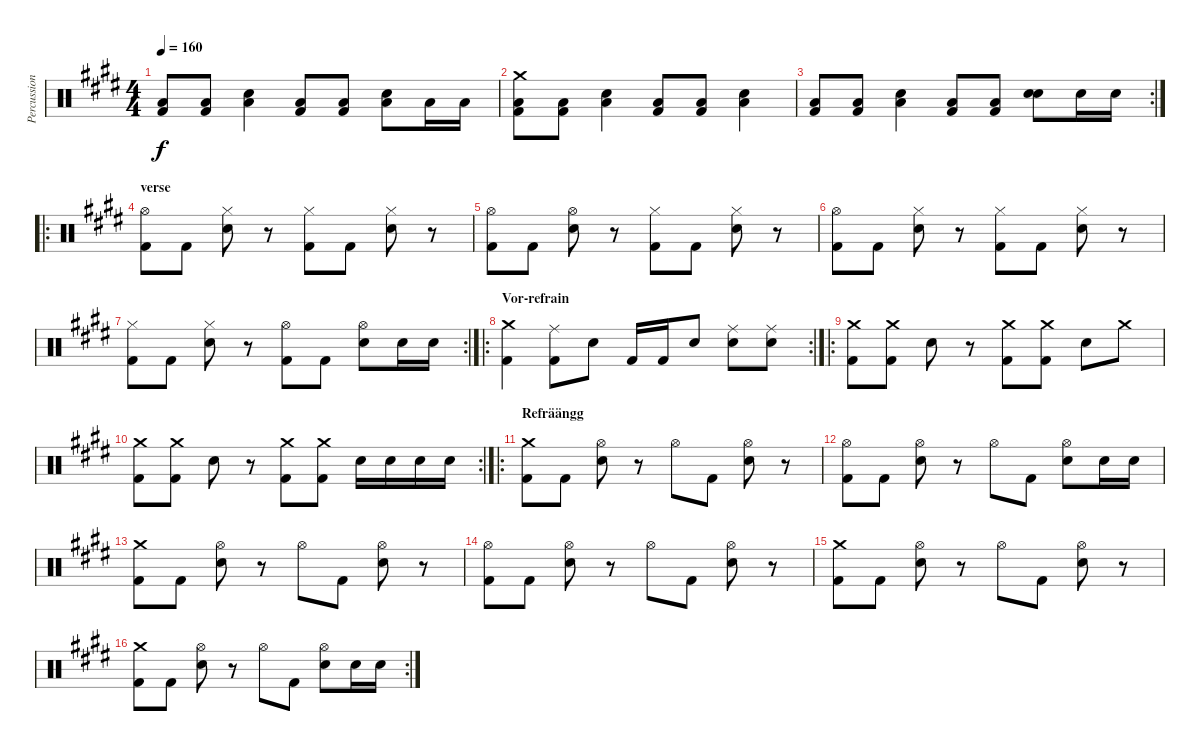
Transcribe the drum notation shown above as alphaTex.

\track ("Percussion" "Percussion") {instrument percussion}
\staff {score}
\articulation defaults
\ts (4 4)
\tempo 160
\clef neutral
\ks e
("Low Floor Tom (hit)" "Kick (hit) 2").8{dy f} ("Low Floor Tom (hit)" "Kick (hit) 2").8 ("Low Floor Tom (hit)" "Electric Snare (hit)").4 ("Low Floor Tom (hit)" "Kick (hit) 2").8 ("Low Floor Tom (hit)" "Kick (hit) 2").8 ("Low Floor Tom (hit)" "Electric Snare (hit)").8 "Low Floor Tom (hit)".16 "Low Floor Tom (hit)".16 |
("Crash medium (hit)" "Low Floor Tom (hit)" "Kick (hit) 2").8 ("Low Floor Tom (hit)" "Kick (hit) 2").8 ("Low Floor Tom (hit)" "Electric Snare (hit)").4 ("Low Floor Tom (hit)" "Kick (hit) 2").8 ("Low Floor Tom (hit)" "Kick (hit) 2").8 ("Low Floor Tom (hit)" "Electric Snare (hit)").4 |
\rc 2
("Low Floor Tom (hit)" "Kick (hit) 2").8 ("Low Floor Tom (hit)" "Kick (hit) 2").8 ("Low Floor Tom (hit)" "Electric Snare (hit)").4 ("Low Floor Tom (hit)" "Kick (hit) 2").8 ("Low Floor Tom (hit)" "Kick (hit) 2").8 ("Electric Snare (hit)" "Electric Snare (hit)").8 "Electric Snare (hit)".16 "Electric Snare (hit)".16 |
\ro
\section ("" "verse")
("Hi-Hat (open)" "Kick (hit) 2").8 "Kick (hit) 2".8 ("Hi-Hat (closed)" "Electric Snare (hit)").8 r.8 ("Hi-Hat (closed)" "Kick (hit) 2").8 "Kick (hit) 2".8 ("Hi-Hat (closed)" "Electric Snare (hit)").8 r.8 |
("Hi-Hat (open)" "Kick (hit) 2").8 "Kick (hit) 2".8 ("Hi-Hat (open)" "Electric Snare (hit)").8 r.8 ("Hi-Hat (closed)" "Kick (hit) 2").8 "Kick (hit) 2".8 ("Hi-Hat (closed)" "Electric Snare (hit)").8 r.8 |
("Hi-Hat (open)" "Kick (hit) 2").8 "Kick (hit) 2".8 ("Hi-Hat (closed)" "Electric Snare (hit)").8 r.8 ("Hi-Hat (closed)" "Kick (hit) 2").8 "Kick (hit) 2".8 ("Hi-Hat (closed)" "Electric Snare (hit)").8 r.8 |
\rc 2
("Hi-Hat (closed)" "Kick (hit) 2").8 "Kick (hit) 2".8 ("Hi-Hat (closed)" "Electric Snare (hit)").8 r.8 ("Hi-Hat (open)" "Kick (hit) 2").8 "Kick (hit) 2".8 ("Hi-Hat (open)" "Electric Snare (hit)").8 "Electric Snare (hit)".16 "Electric Snare (hit)".16 |
\ro
\rc 2
\section ("" "Vor-refrain")
("Crash medium (hit)" "Kick (hit) 2").4 ("Ride (middle)" "Kick (hit) 2").8 "Electric Snare (hit)".8 "Kick (hit) 2".16 "Kick (hit) 2".16 "Electric Snare (hit)".8 ("Ride (middle)" "Electric Snare (hit)").8 ("Ride (middle)" "Electric Snare (hit)").8 |
\ro
("Crash medium (hit)" "Kick (hit) 2").8 ("Crash medium (hit)" "Kick (hit) 2").8 "Electric Snare (hit)".8 r.8 ("Crash medium (hit)" "Kick (hit) 2").8 ("Crash medium (hit)" "Kick (hit) 2").8 "Electric Snare (hit)".8 "Crash medium (hit)".8 |
\rc 2
("Crash medium (hit)" "Kick (hit) 2").8 ("Crash medium (hit)" "Kick (hit) 2").8 "Electric Snare (hit)".8 r.8 ("Crash medium (hit)" "Kick (hit) 2").8 ("Crash medium (hit)" "Kick (hit) 2").8 "Electric Snare (hit)".16 "Electric Snare (hit)".16 "Electric Snare (hit)".16 "Electric Snare (hit)".16 |
\ro
\section ("" "Refräängg")
("Crash medium (hit)" "Kick (hit) 2").8 "Kick (hit) 2".8 ("Hi-Hat (open)" "Electric Snare (hit)").8 r.8 "Hi-Hat (open)".8 "Kick (hit) 2".8 ("Hi-Hat (open)" "Electric Snare (hit)").8 r.8 |
("Hi-Hat (open)" "Kick (hit) 2").8 "Kick (hit) 2".8 ("Hi-Hat (open)" "Electric Snare (hit)").8 r.8 "Hi-Hat (open)".8 "Kick (hit) 2".8 ("Hi-Hat (open)" "Electric Snare (hit)").8 "Electric Snare (hit)".16 "Electric Snare (hit)".16 |
("Crash medium (hit)" "Kick (hit) 2").8 "Kick (hit) 2".8 ("Hi-Hat (open)" "Electric Snare (hit)").8 r.8 "Hi-Hat (open)".8 "Kick (hit) 2".8 ("Hi-Hat (open)" "Electric Snare (hit)").8 r.8 |
("Hi-Hat (open)" "Kick (hit) 2").8 "Kick (hit) 2".8 ("Hi-Hat (open)" "Electric Snare (hit)").8 r.8 "Hi-Hat (open)".8 "Kick (hit) 2".8 ("Hi-Hat (open)" "Electric Snare (hit)").8 r.8 |
("Crash medium (hit)" "Kick (hit) 2").8 "Kick (hit) 2".8 ("Hi-Hat (open)" "Electric Snare (hit)").8 r.8 "Hi-Hat (open)".8 "Kick (hit) 2".8 ("Hi-Hat (open)" "Electric Snare (hit)").8 r.8 |
\rc 2
("Crash medium (hit)" "Kick (hit) 2").8 "Kick (hit) 2".8 ("Hi-Hat (open)" "Electric Snare (hit)").8 r.8 "Hi-Hat (open)".8 "Kick (hit) 2".8 ("Hi-Hat (open)" "Electric Snare (hit)").8 "Electric Snare (hit)".16 "Electric Snare (hit)".16
